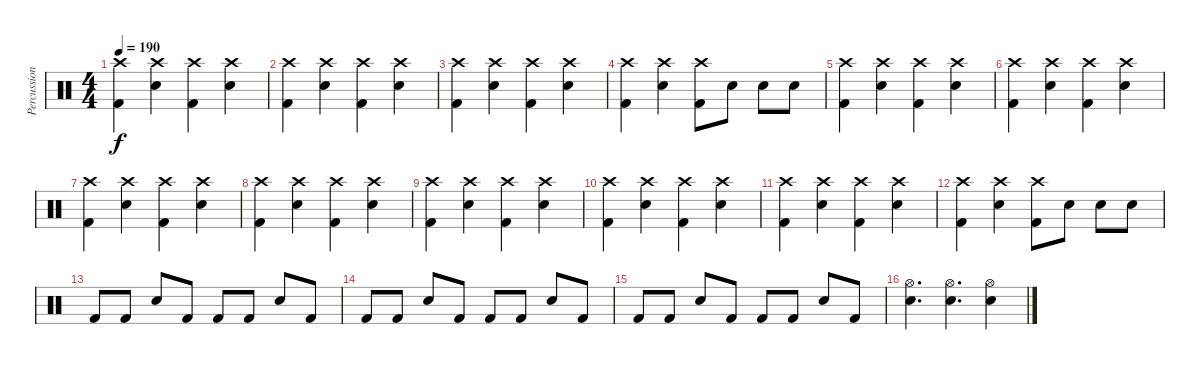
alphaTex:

\track ("Percussions" "Percussion") {instrument percussion}
\staff {score}
\articulation defaults
\ts (4 4)
\tempo 190
\clef neutral
\ks c
("Crash high (hit)" "Kick (hit) 2").4{dy f} ("Crash high (hit)" "Electric Snare (hit)").4 ("Crash high (hit)" "Kick (hit) 2").4 ("Crash high (hit)" "Electric Snare (hit)").4 |
("Crash high (hit)" "Kick (hit) 2").4 ("Crash high (hit)" "Electric Snare (hit)").4 ("Crash high (hit)" "Kick (hit) 2").4 ("Crash high (hit)" "Electric Snare (hit)").4 |
("Crash high (hit)" "Kick (hit) 2").4 ("Crash high (hit)" "Electric Snare (hit)").4 ("Crash high (hit)" "Kick (hit) 2").4 ("Crash high (hit)" "Electric Snare (hit)").4 |
("Crash high (hit)" "Kick (hit) 2").4 ("Crash high (hit)" "Electric Snare (hit)").4 ("Crash high (hit)" "Kick (hit) 2").8 "Electric Snare (hit)".8 "Electric Snare (hit)".8 "Electric Snare (hit)".8 |
("Crash high (hit)" "Kick (hit) 2").4 ("Crash high (hit)" "Electric Snare (hit)").4 ("Crash high (hit)" "Kick (hit) 2").4 ("Crash high (hit)" "Electric Snare (hit)").4 |
("Crash high (hit)" "Kick (hit) 2").4 ("Crash high (hit)" "Electric Snare (hit)").4 ("Crash high (hit)" "Kick (hit) 2").4 ("Crash high (hit)" "Electric Snare (hit)").4 |
("Crash high (hit)" "Kick (hit) 2").4 ("Crash high (hit)" "Electric Snare (hit)").4 ("Crash high (hit)" "Kick (hit) 2").4 ("Crash high (hit)" "Electric Snare (hit)").4 |
("Crash high (hit)" "Kick (hit) 2").4 ("Crash high (hit)" "Electric Snare (hit)").4 ("Crash high (hit)" "Kick (hit) 2").4 ("Crash high (hit)" "Electric Snare (hit)").4 |
("Crash high (hit)" "Kick (hit) 2").4 ("Crash high (hit)" "Electric Snare (hit)").4 ("Crash high (hit)" "Kick (hit) 2").4 ("Crash high (hit)" "Electric Snare (hit)").4 |
("Crash high (hit)" "Kick (hit) 2").4 ("Crash high (hit)" "Electric Snare (hit)").4 ("Crash high (hit)" "Kick (hit) 2").4 ("Crash high (hit)" "Electric Snare (hit)").4 |
("Crash high (hit)" "Kick (hit) 2").4 ("Crash high (hit)" "Electric Snare (hit)").4 ("Crash high (hit)" "Kick (hit) 2").4 ("Crash high (hit)" "Electric Snare (hit)").4 |
("Crash high (hit)" "Kick (hit) 2").4 ("Crash high (hit)" "Electric Snare (hit)").4 ("Crash high (hit)" "Kick (hit) 2").8 "Electric Snare (hit)".8 "Electric Snare (hit)".8 "Electric Snare (hit)".8 |
"Kick (hit) 2".8 "Kick (hit) 2".8 "Electric Snare (hit)".8 "Kick (hit) 2".8 "Kick (hit) 2".8 "Kick (hit) 2".8 "Electric Snare (hit)".8 "Kick (hit) 2".8 |
"Kick (hit) 2".8 "Kick (hit) 2".8 "Electric Snare (hit)".8 "Kick (hit) 2".8 "Kick (hit) 2".8 "Kick (hit) 2".8 "Electric Snare (hit)".8 "Kick (hit) 2".8 |
"Kick (hit) 2".8 "Kick (hit) 2".8 "Electric Snare (hit)".8 "Kick (hit) 2".8 "Kick (hit) 2".8 "Kick (hit) 2".8 "Electric Snare (hit)".8 "Kick (hit) 2".8 |
("Hi-Hat (open)" "Electric Snare (hit)").4{d} ("Hi-Hat (open)" "Electric Snare (hit)").4{d} ("Hi-Hat (open)" "Electric Snare (hit)").4
